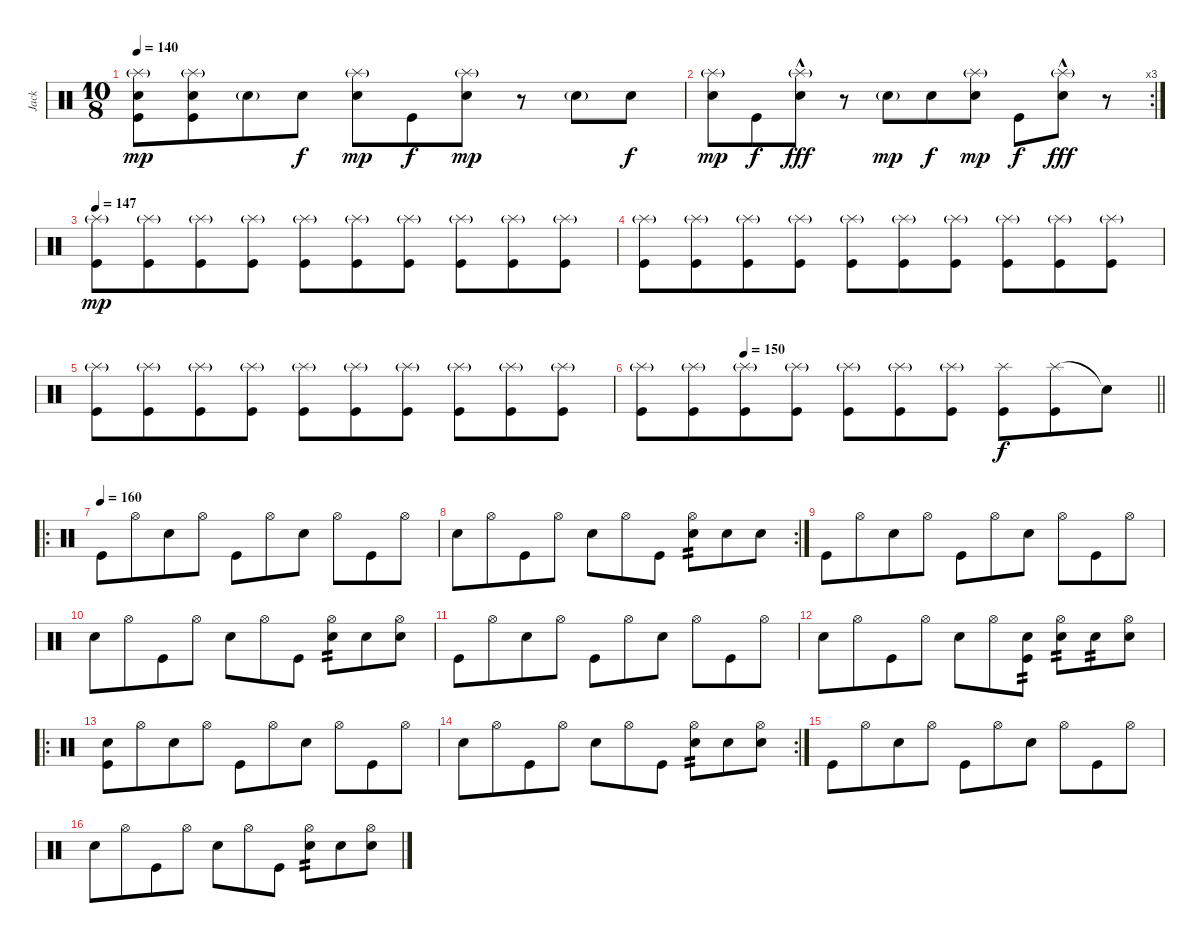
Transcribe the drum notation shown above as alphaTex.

\track ("Jack" "Jack") {instrument percussion}
\staff {score}
\articulation defaults
\ts (10 8)
\tempo 140
\clef neutral
\ks c
("Splash (hit)"{g} "Snare (hit) 2" "Kick (hit)").8{dy mp} ("Splash (hit)"{g} "Snare (hit) 2" "Kick (hit)").8 "Electric Snare (hit)"{g}.8 "Snare (hit) 2".8{dy f} ("Splash (hit)"{g} "Snare (hit) 2").8{dy mp} "Kick (hit)".8{dy f} ("Splash (hit)"{g} "Snare (hit) 2").8{dy mp} r.8 "Electric Snare (hit)"{g}.8 "Snare (hit) 2".8{dy f} |
\rc 3
("Splash (hit)"{g} "Snare (hit) 2").8{dy mp} "Kick (hit)".8{dy f} ("Splash (hit)"{g} "Snare (hit) 2"{hac}).8{dy fff} r.8 "Electric Snare (hit)"{g}.8{dy mp} "Snare (hit) 2".8{dy f} ("Splash (hit)"{g} "Snare (hit) 2").8{dy mp} "Kick (hit)".8{dy f} ("Splash (hit)"{g} "Snare (hit) 2"{hac}).8{dy fff} r.8 |
\tempo 147
("Splash (hit)"{g} "Kick (hit)").8{dy mp} ("Splash (hit)"{g} "Kick (hit)").8 ("Splash (hit)"{g} "Kick (hit)").8 ("Splash (hit)"{g} "Kick (hit)").8 ("Splash (hit)"{g} "Kick (hit)").8 ("Splash (hit)"{g} "Kick (hit)").8 ("Splash (hit)"{g} "Kick (hit)").8 ("Splash (hit)"{g} "Kick (hit)").8 ("Splash (hit)"{g} "Kick (hit)").8 ("Splash (hit)"{g} "Kick (hit)").8 |
("Splash (hit)"{g} "Kick (hit)").8 ("Splash (hit)"{g} "Kick (hit)").8 ("Splash (hit)"{g} "Kick (hit)").8 ("Splash (hit)"{g} "Kick (hit)").8 ("Splash (hit)"{g} "Kick (hit)").8 ("Splash (hit)"{g} "Kick (hit)").8 ("Splash (hit)"{g} "Kick (hit)").8 ("Splash (hit)"{g} "Kick (hit)").8 ("Splash (hit)"{g} "Kick (hit)").8 ("Splash (hit)"{g} "Kick (hit)").8 |
("Splash (hit)"{g} "Kick (hit)").8 ("Splash (hit)"{g} "Kick (hit)").8 ("Splash (hit)"{g} "Kick (hit)").8 ("Splash (hit)"{g} "Kick (hit)").8 ("Splash (hit)"{g} "Kick (hit)").8 ("Splash (hit)"{g} "Kick (hit)").8 ("Splash (hit)"{g} "Kick (hit)").8 ("Splash (hit)"{g} "Kick (hit)").8 ("Splash (hit)"{g} "Kick (hit)").8 ("Splash (hit)"{g} "Kick (hit)").8 |
\tempo (150 0.2)
\barLineRight lightlight
("Splash (hit)"{g} "Kick (hit)").8 ("Splash (hit)"{g} "Kick (hit)").8 ("Splash (hit)"{g} "Kick (hit)").8 ("Splash (hit)"{g} "Kick (hit)").8 ("Splash (hit)"{g} "Kick (hit)").8 ("Splash (hit)"{g} "Kick (hit)").8 ("Splash (hit)"{g} "Kick (hit)").8 ("Splash (hit)" "Kick (hit)").8{dy f} ("Splash (hit)" "Kick (hit)").8 "Snare (hit)"{t}.8 |
\ro
\tempo (160)
"Kick (hit)".8 "Hi-Hat (open)".8 "Snare (hit) 2".8 "Hi-Hat (open)".8 "Kick (hit)".8 "Hi-Hat (open)".8 "Snare (hit) 2".8 "Hi-Hat (open)".8 "Kick (hit)".8 "Hi-Hat (open)".8 |
\rc 2 "Snare (hit) 2".8 "Hi-Hat (open)".8 "Kick (hit)".8 "Hi-Hat (open)".8 "Snare (hit) 2".8 "Hi-Hat (open)".8 "Kick (hit)".8
("Hi-Hat (open)" "Electric Snare (hit)").8{tp 2} "Snare (hit) 2".8 "Snare (hit) 2".8 |
"Kick (hit)".8 "Hi-Hat (open)".8 "Snare (hit) 2".8 "Hi-Hat (open)".8 "Kick (hit)".8 "Hi-Hat (open)".8 "Snare (hit) 2".8 "Hi-Hat (open)".8 "Kick (hit)".8 "Hi-Hat (open)".8 |
"Snare (hit) 2".8 "Hi-Hat (open)".8 "Kick (hit)".8 "Hi-Hat (open)".8 "Snare (hit) 2".8 "Hi-Hat (open)".8 "Kick (hit)".8 ("Hi-Hat (open)" "Electric Snare (hit)").8{tp 2} "Snare (hit) 2".8 ("Hi-Hat (open)" "Snare (hit) 2").8 |
"Kick (hit)".8 "Hi-Hat (open)".8 "Snare (hit) 2".8 "Hi-Hat (open)".8 "Kick (hit)".8 "Hi-Hat (open)".8 "Snare (hit) 2".8 "Hi-Hat (open)".8 "Kick (hit)".8 "Hi-Hat (open)".8 |
"Snare (hit) 2".8 "Hi-Hat (open)".8 "Kick (hit)".8 "Hi-Hat (open)".8 "Snare (hit) 2".8 "Hi-Hat (open)".8 ("Snare (hit) 2" "Kick (hit)").8{tp 2} ("Hi-Hat (open)" "Electric Snare (hit)").8{tp 2} "Snare (hit) 2".8{tp 2} ("Hi-Hat (open)" "Snare (hit) 2").8 |
\ro
("Snare (hit) 2" "Kick (hit)").8 "Hi-Hat (open)".8 "Snare (hit) 2".8 "Hi-Hat (open)".8 "Kick (hit)".8 "Hi-Hat (open)".8 "Snare (hit) 2".8 "Hi-Hat (open)".8 "Kick (hit)".8 "Hi-Hat (open)".8 |
\rc 2 "Snare (hit) 2".8 "Hi-Hat (open)".8 "Kick (hit)".8 "Hi-Hat (open)".8 "Snare (hit) 2".8 "Hi-Hat (open)".8 "Kick (hit)".8
("Hi-Hat (open)" "Electric Snare (hit)").8{tp 2} "Snare (hit) 2".8 ("Hi-Hat (open)" "Snare (hit) 2").8 |
"Kick (hit)".8 "Hi-Hat (open)".8 "Snare (hit) 2".8 "Hi-Hat (open)".8 "Kick (hit)".8 "Hi-Hat (open)".8 "Snare (hit) 2".8 "Hi-Hat (open)".8 "Kick (hit)".8 "Hi-Hat (open)".8 |
"Snare (hit) 2".8 "Hi-Hat (open)".8 "Kick (hit)".8 "Hi-Hat (open)".8 "Snare (hit) 2".8 "Hi-Hat (open)".8 "Kick (hit)".8 ("Hi-Hat (open)" "Electric Snare (hit)").8{tp 2} "Snare (hit) 2".8 ("Hi-Hat (open)" "Snare (hit) 2").8
